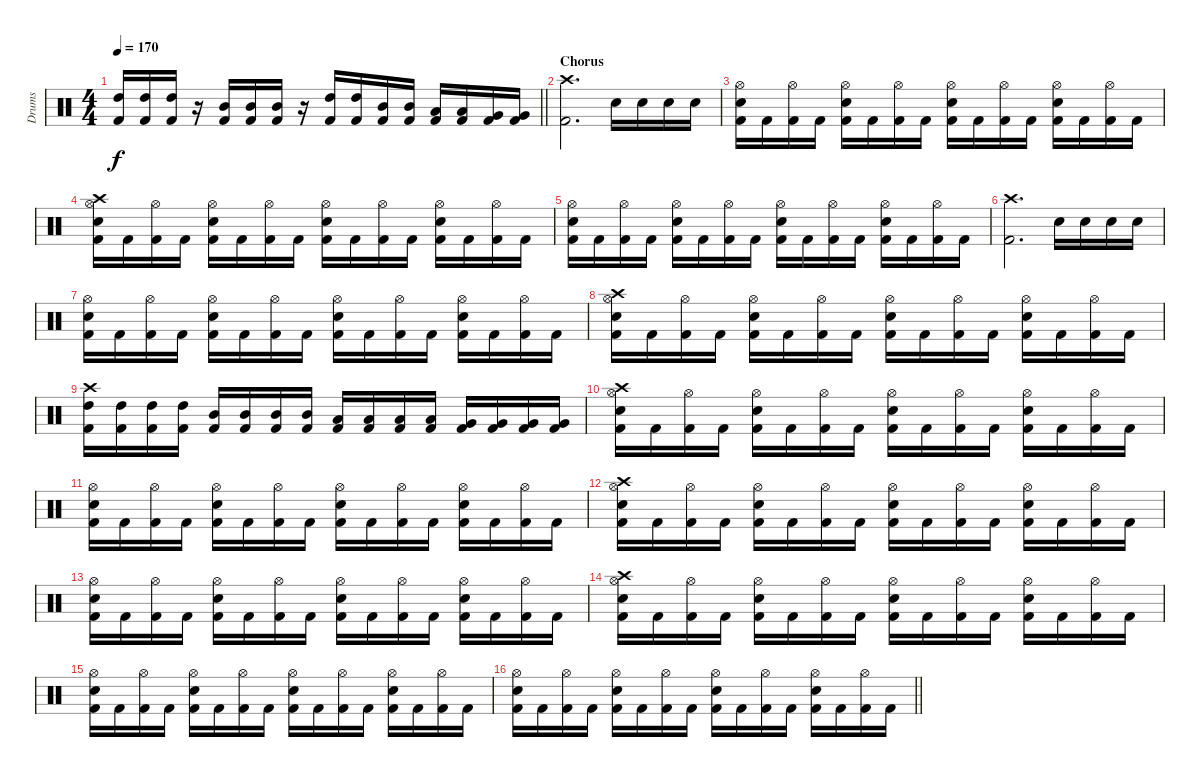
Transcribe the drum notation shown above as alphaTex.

\track ("Drums" "Drums") {instrument percussion}
\staff {score}
\articulation defaults
\ts (4 4)
\tempo 170
\clef neutral
\barLineRight lightlight
\ks c
("High Tom (hit)" "Kick (hit) 2").16{dy f} ("High Tom (hit)" "Kick (hit) 2").16 ("High Tom (hit)" "Kick (hit) 2").16 r.16 ("Mid Tom (hit)" "Kick (hit) 2").16 ("Mid Tom (hit)" "Kick (hit) 2").16 ("Mid Tom (hit)" "Kick (hit) 2").16 r.16 ("High Tom (hit)" "Kick (hit) 2").16 ("High Tom (hit)" "Kick (hit) 2").16 ("Mid Tom (hit)" "Kick (hit) 2").16 ("Mid Tom (hit)" "Kick (hit) 2").16 ("Low Tom (hit)" "Kick (hit) 2").16 ("Low Tom (hit)" "Kick (hit) 2").16 ("Very Low Tom (hit)" "Kick (hit) 2").16 ("Very Low Tom (hit)" "Kick (hit) 2").16 |
\section ("" "Chorus")
("Crash high (hit)" "Kick (hit) 2").2{d} "Snare (hit) 2".16 "Snare (hit) 2".16 "Snare (hit) 2".16 "Snare (hit) 2".16 |
("Hi-Hat (open)" "Snare (hit) 2" "Kick (hit) 2").16 "Kick (hit) 2".16 ("Hi-Hat (open)" "Kick (hit) 2").16 "Kick (hit) 2".16 ("Hi-Hat (open)" "Snare (hit) 2" "Kick (hit) 2").16 "Kick (hit) 2".16 ("Hi-Hat (open)" "Kick (hit) 2").16 "Kick (hit) 2".16 ("Hi-Hat (open)" "Snare (hit) 2" "Kick (hit) 2").16 "Kick (hit) 2".16 ("Hi-Hat (open)" "Kick (hit) 2").16 "Kick (hit) 2".16 ("Hi-Hat (open)" "Snare (hit) 2" "Kick (hit) 2").16 "Kick (hit) 2".16 ("Hi-Hat (open)" "Kick (hit) 2").16 "Kick (hit) 2".16 |
("Crash high (hit)" "Hi-Hat (open)" "Snare (hit) 2" "Kick (hit) 2").16 "Kick (hit) 2".16 ("Hi-Hat (open)" "Kick (hit) 2").16 "Kick (hit) 2".16 ("Hi-Hat (open)" "Snare (hit) 2" "Kick (hit) 2").16 "Kick (hit) 2".16 ("Hi-Hat (open)" "Kick (hit) 2").16 "Kick (hit) 2".16 ("Hi-Hat (open)" "Snare (hit) 2" "Kick (hit) 2").16 "Kick (hit) 2".16 ("Hi-Hat (open)" "Kick (hit) 2").16 "Kick (hit) 2".16 ("Hi-Hat (open)" "Snare (hit) 2" "Kick (hit) 2").16 "Kick (hit) 2".16 ("Hi-Hat (open)" "Kick (hit) 2").16 "Kick (hit) 2".16 |
("Hi-Hat (open)" "Snare (hit) 2" "Kick (hit) 2").16 "Kick (hit) 2".16 ("Hi-Hat (open)" "Kick (hit) 2").16 "Kick (hit) 2".16 ("Hi-Hat (open)" "Snare (hit) 2" "Kick (hit) 2").16 "Kick (hit) 2".16 ("Hi-Hat (open)" "Kick (hit) 2").16 "Kick (hit) 2".16 ("Hi-Hat (open)" "Snare (hit) 2" "Kick (hit) 2").16 "Kick (hit) 2".16 ("Hi-Hat (open)" "Kick (hit) 2").16 "Kick (hit) 2".16 ("Hi-Hat (open)" "Snare (hit) 2" "Kick (hit) 2").16 "Kick (hit) 2".16 ("Hi-Hat (open)" "Kick (hit) 2").16 "Kick (hit) 2".16 |
("Crash high (hit)" "Kick (hit) 2").2{d} "Snare (hit) 2".16 "Snare (hit) 2".16 "Snare (hit) 2".16 "Snare (hit) 2".16 |
("Hi-Hat (open)" "Snare (hit) 2" "Kick (hit) 2").16 "Kick (hit) 2".16 ("Hi-Hat (open)" "Kick (hit) 2").16 "Kick (hit) 2".16 ("Hi-Hat (open)" "Snare (hit) 2" "Kick (hit) 2").16 "Kick (hit) 2".16 ("Hi-Hat (open)" "Kick (hit) 2").16 "Kick (hit) 2".16 ("Hi-Hat (open)" "Snare (hit) 2" "Kick (hit) 2").16 "Kick (hit) 2".16 ("Hi-Hat (open)" "Kick (hit) 2").16 "Kick (hit) 2".16 ("Hi-Hat (open)" "Snare (hit) 2" "Kick (hit) 2").16 "Kick (hit) 2".16 ("Hi-Hat (open)" "Kick (hit) 2").16 "Kick (hit) 2".16 |
("Crash high (hit)" "Hi-Hat (open)" "Snare (hit) 2" "Kick (hit) 2").16 "Kick (hit) 2".16 ("Hi-Hat (open)" "Kick (hit) 2").16 "Kick (hit) 2".16 ("Hi-Hat (open)" "Snare (hit) 2" "Kick (hit) 2").16 "Kick (hit) 2".16 ("Hi-Hat (open)" "Kick (hit) 2").16 "Kick (hit) 2".16 ("Hi-Hat (open)" "Snare (hit) 2" "Kick (hit) 2").16 "Kick (hit) 2".16 ("Hi-Hat (open)" "Kick (hit) 2").16 "Kick (hit) 2".16 ("Hi-Hat (open)" "Snare (hit) 2" "Kick (hit) 2").16 "Kick (hit) 2".16 ("Hi-Hat (open)" "Kick (hit) 2").16 "Kick (hit) 2".16 |
("Crash high (hit)" "High Tom (hit)" "Kick (hit) 2").16 ("High Tom (hit)" "Kick (hit) 2").16 ("High Tom (hit)" "Kick (hit) 2").16 ("High Tom (hit)" "Kick (hit) 2").16 ("Mid Tom (hit)" "Kick (hit) 2").16 ("Mid Tom (hit)" "Kick (hit) 2").16 ("Mid Tom (hit)" "Kick (hit) 2").16 ("Mid Tom (hit)" "Kick (hit) 2").16 ("Low Tom (hit)" "Kick (hit) 2").16 ("Low Tom (hit)" "Kick (hit) 2").16 ("Low Tom (hit)" "Kick (hit) 2").16 ("Low Tom (hit)" "Kick (hit) 2").16 ("Very Low Tom (hit)" "Kick (hit) 2").16 ("Very Low Tom (hit)" "Kick (hit) 2").16 ("Very Low Tom (hit)" "Kick (hit) 2").16 ("Very Low Tom (hit)" "Kick (hit) 2").16 |
("Crash high (hit)" "Hi-Hat (open)" "Snare (hit) 2" "Kick (hit) 2").16 "Kick (hit) 2".16 ("Hi-Hat (open)" "Kick (hit) 2").16 "Kick (hit) 2".16 ("Hi-Hat (open)" "Snare (hit) 2" "Kick (hit) 2").16 "Kick (hit) 2".16 ("Hi-Hat (open)" "Kick (hit) 2").16 "Kick (hit) 2".16 ("Hi-Hat (open)" "Snare (hit) 2" "Kick (hit) 2").16 "Kick (hit) 2".16 ("Hi-Hat (open)" "Kick (hit) 2").16 "Kick (hit) 2".16 ("Hi-Hat (open)" "Snare (hit) 2" "Kick (hit) 2").16 "Kick (hit) 2".16 ("Hi-Hat (open)" "Kick (hit) 2").16 "Kick (hit) 2".16 |
("Hi-Hat (open)" "Snare (hit) 2" "Kick (hit) 2").16 "Kick (hit) 2".16 ("Hi-Hat (open)" "Kick (hit) 2").16 "Kick (hit) 2".16 ("Hi-Hat (open)" "Snare (hit) 2" "Kick (hit) 2").16 "Kick (hit) 2".16 ("Hi-Hat (open)" "Kick (hit) 2").16 "Kick (hit) 2".16 ("Hi-Hat (open)" "Snare (hit) 2" "Kick (hit) 2").16 "Kick (hit) 2".16 ("Hi-Hat (open)" "Kick (hit) 2").16 "Kick (hit) 2".16 ("Hi-Hat (open)" "Snare (hit) 2" "Kick (hit) 2").16 "Kick (hit) 2".16 ("Hi-Hat (open)" "Kick (hit) 2").16 "Kick (hit) 2".16 |
("Crash high (hit)" "Hi-Hat (open)" "Snare (hit) 2" "Kick (hit) 2").16 "Kick (hit) 2".16 ("Hi-Hat (open)" "Kick (hit) 2").16 "Kick (hit) 2".16 ("Hi-Hat (open)" "Snare (hit) 2" "Kick (hit) 2").16 "Kick (hit) 2".16 ("Hi-Hat (open)" "Kick (hit) 2").16 "Kick (hit) 2".16 ("Hi-Hat (open)" "Snare (hit) 2" "Kick (hit) 2").16 "Kick (hit) 2".16 ("Hi-Hat (open)" "Kick (hit) 2").16 "Kick (hit) 2".16 ("Hi-Hat (open)" "Snare (hit) 2" "Kick (hit) 2").16 "Kick (hit) 2".16 ("Hi-Hat (open)" "Kick (hit) 2").16 "Kick (hit) 2".16 |
("Hi-Hat (open)" "Snare (hit) 2" "Kick (hit) 2").16 "Kick (hit) 2".16 ("Hi-Hat (open)" "Kick (hit) 2").16 "Kick (hit) 2".16 ("Hi-Hat (open)" "Snare (hit) 2" "Kick (hit) 2").16 "Kick (hit) 2".16 ("Hi-Hat (open)" "Kick (hit) 2").16 "Kick (hit) 2".16 ("Hi-Hat (open)" "Snare (hit) 2" "Kick (hit) 2").16 "Kick (hit) 2".16 ("Hi-Hat (open)" "Kick (hit) 2").16 "Kick (hit) 2".16 ("Hi-Hat (open)" "Snare (hit) 2" "Kick (hit) 2").16 "Kick (hit) 2".16 ("Hi-Hat (open)" "Kick (hit) 2").16 "Kick (hit) 2".16 |
("Crash high (hit)" "Hi-Hat (open)" "Snare (hit) 2" "Kick (hit) 2").16 "Kick (hit) 2".16 ("Hi-Hat (open)" "Kick (hit) 2").16 "Kick (hit) 2".16 ("Hi-Hat (open)" "Snare (hit) 2" "Kick (hit) 2").16 "Kick (hit) 2".16 ("Hi-Hat (open)" "Kick (hit) 2").16 "Kick (hit) 2".16 ("Hi-Hat (open)" "Snare (hit) 2" "Kick (hit) 2").16 "Kick (hit) 2".16 ("Hi-Hat (open)" "Kick (hit) 2").16 "Kick (hit) 2".16 ("Hi-Hat (open)" "Snare (hit) 2" "Kick (hit) 2").16 "Kick (hit) 2".16 ("Hi-Hat (open)" "Kick (hit) 2").16 "Kick (hit) 2".16 |
("Hi-Hat (open)" "Snare (hit) 2" "Kick (hit) 2").16 "Kick (hit) 2".16 ("Hi-Hat (open)" "Kick (hit) 2").16 "Kick (hit) 2".16 ("Hi-Hat (open)" "Snare (hit) 2" "Kick (hit) 2").16 "Kick (hit) 2".16 ("Hi-Hat (open)" "Kick (hit) 2").16 "Kick (hit) 2".16 ("Hi-Hat (open)" "Snare (hit) 2" "Kick (hit) 2").16 "Kick (hit) 2".16 ("Hi-Hat (open)" "Kick (hit) 2").16 "Kick (hit) 2".16 ("Hi-Hat (open)" "Snare (hit) 2" "Kick (hit) 2").16 "Kick (hit) 2".16 ("Hi-Hat (open)" "Kick (hit) 2").16 "Kick (hit) 2".16 |
\barLineRight lightlight
("Hi-Hat (open)" "Snare (hit) 2" "Kick (hit) 2").16 "Kick (hit) 2".16 ("Hi-Hat (open)" "Kick (hit) 2").16 "Kick (hit) 2".16 ("Hi-Hat (open)" "Snare (hit) 2" "Kick (hit) 2").16 "Kick (hit) 2".16 ("Hi-Hat (open)" "Kick (hit) 2").16 "Kick (hit) 2".16 ("Hi-Hat (open)" "Snare (hit) 2" "Kick (hit) 2").16 "Kick (hit) 2".16 ("Hi-Hat (open)" "Kick (hit) 2").16 "Kick (hit) 2".16 ("Hi-Hat (open)" "Snare (hit) 2" "Kick (hit) 2").16 "Kick (hit) 2".16 ("Hi-Hat (open)" "Kick (hit) 2").16 "Kick (hit) 2".16
